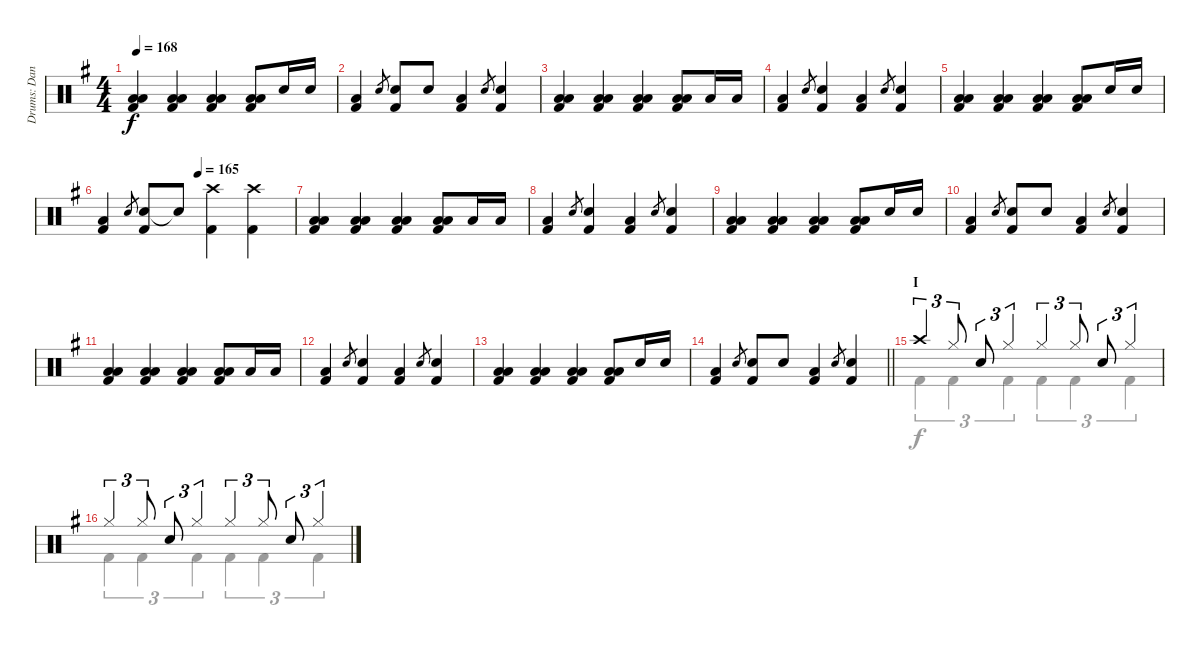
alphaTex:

\track ("Drums: Dana" "Drums: Dan") {instrument percussion}
\staff {score}
\articulation defaults
\voice
\ts (4 4)
\tempo 168
\clef neutral
\ks g
("Low Tom (hit)" "Low Floor Tom (hit)" "Kick (hit) 2").4{dy f} ("Low Tom (hit)" "Low Floor Tom (hit)" "Kick (hit) 2").4 ("Low Tom (hit)" "Low Floor Tom (hit)" "Kick (hit) 2").4 ("Low Tom (hit)" "Low Floor Tom (hit)" "Kick (hit) 2").8 "Electric Snare (hit)".16 "Electric Snare (hit)".16 |
("Low Floor Tom (hit)" "Kick (hit) 2").4 "Electric Snare (hit)".8{gr} ("Electric Snare (hit)" "Kick (hit) 2").8 "Electric Snare (hit)".8 ("Low Floor Tom (hit)" "Kick (hit) 2").4 "Electric Snare (hit)".8{gr} ("Electric Snare (hit)" "Kick (hit) 2").4 |
("Low Tom (hit)" "Low Floor Tom (hit)" "Kick (hit) 2").4 ("Low Tom (hit)" "Low Floor Tom (hit)" "Kick (hit) 2").4 ("Low Tom (hit)" "Low Floor Tom (hit)" "Kick (hit) 2").4 ("Low Tom (hit)" "Low Floor Tom (hit)" "Kick (hit) 2").8 "Low Tom (hit)".16 "Low Floor Tom (hit)".16 |
("Low Floor Tom (hit)" "Kick (hit) 2").4 "Electric Snare (hit)".8{gr} ("Electric Snare (hit)" "Kick (hit) 2").4 ("Low Floor Tom (hit)" "Kick (hit) 2").4 "Electric Snare (hit)".8{gr} ("Electric Snare (hit)" "Kick (hit) 2").4 |
("Low Tom (hit)" "Low Floor Tom (hit)" "Kick (hit) 2").4 ("Low Tom (hit)" "Low Floor Tom (hit)" "Kick (hit) 2").4 ("Low Tom (hit)" "Low Floor Tom (hit)" "Kick (hit) 2").4 ("Low Tom (hit)" "Low Floor Tom (hit)" "Kick (hit) 2").8 "Electric Snare (hit)".16 "Electric Snare (hit)".16 |
\tempo (165 0.5)
("Low Floor Tom (hit)" "Kick (hit) 2").4 "Electric Snare (hit)".8{gr} ("Electric Snare (hit)" "Kick (hit) 2").8 "Electric Snare (hit)"{t}.8 ("Crash high (hit)" "Kick (hit) 2").4 ("Crash high (hit)" "Kick (hit) 2").4 |
("Low Tom (hit)" "Low Floor Tom (hit)" "Kick (hit) 2").4 ("Low Tom (hit)" "Low Floor Tom (hit)" "Kick (hit) 2").4 ("Low Tom (hit)" "Low Floor Tom (hit)" "Kick (hit) 2").4 ("Low Tom (hit)" "Low Floor Tom (hit)" "Kick (hit) 2").8 "Low Tom (hit)".16 "Low Floor Tom (hit)".16 |
("Low Floor Tom (hit)" "Kick (hit) 2").4 "Electric Snare (hit)".8{gr} ("Electric Snare (hit)" "Kick (hit) 2").4 ("Low Floor Tom (hit)" "Kick (hit) 2").4 "Electric Snare (hit)".8{gr} ("Electric Snare (hit)" "Kick (hit) 2").4 |
("Low Tom (hit)" "Low Floor Tom (hit)" "Kick (hit) 2").4 ("Low Tom (hit)" "Low Floor Tom (hit)" "Kick (hit) 2").4 ("Low Tom (hit)" "Low Floor Tom (hit)" "Kick (hit) 2").4 ("Low Tom (hit)" "Low Floor Tom (hit)" "Kick (hit) 2").8 "Electric Snare (hit)".16 "Electric Snare (hit)".16 |
("Low Floor Tom (hit)" "Kick (hit) 2").4 "Electric Snare (hit)".8{gr} ("Electric Snare (hit)" "Kick (hit) 2").8 "Electric Snare (hit)".8 ("Low Floor Tom (hit)" "Kick (hit) 2").4 "Electric Snare (hit)".8{gr} ("Electric Snare (hit)" "Kick (hit) 2").4 |
("Low Tom (hit)" "Low Floor Tom (hit)" "Kick (hit) 2").4 ("Low Tom (hit)" "Low Floor Tom (hit)" "Kick (hit) 2").4 ("Low Tom (hit)" "Low Floor Tom (hit)" "Kick (hit) 2").4 ("Low Tom (hit)" "Low Floor Tom (hit)" "Kick (hit) 2").8 "Low Tom (hit)".16 "Low Floor Tom (hit)".16 |
("Low Floor Tom (hit)" "Kick (hit) 2").4 "Electric Snare (hit)".8{gr} ("Electric Snare (hit)" "Kick (hit) 2").4 ("Low Floor Tom (hit)" "Kick (hit) 2").4 "Electric Snare (hit)".8{gr} ("Electric Snare (hit)" "Kick (hit) 2").4 |
("Low Tom (hit)" "Low Floor Tom (hit)" "Kick (hit) 2").4 ("Low Tom (hit)" "Low Floor Tom (hit)" "Kick (hit) 2").4 ("Low Tom (hit)" "Low Floor Tom (hit)" "Kick (hit) 2").4 ("Low Tom (hit)" "Low Floor Tom (hit)" "Kick (hit) 2").8 "Electric Snare (hit)".16 "Electric Snare (hit)".16 |
\barLineRight lightlight
("Low Floor Tom (hit)" "Kick (hit) 2").4 "Electric Snare (hit)".8{gr} ("Electric Snare (hit)" "Kick (hit) 2").8 "Electric Snare (hit)".8 ("Low Floor Tom (hit)" "Kick (hit) 2").4 "Electric Snare (hit)".8{gr} ("Electric Snare (hit)" "Kick (hit) 2").4 |
\section ("" "I")
"Crash high (hit)".4{tu (3 2)} "Hi-Hat (closed)".8{tu (3 2)} "Snare (hit) 2".8{tu (3 2)} "Hi-Hat (closed)".4{tu (3 2)} "Hi-Hat (closed)".4{tu (3 2)} "Hi-Hat (closed)".8{tu (3 2)} "Snare (hit) 2".8{tu (3 2)} "Hi-Hat (closed)".4{tu (3 2)} |
"Hi-Hat (closed)".4{tu (3 2)} "Hi-Hat (closed)".8{tu (3 2)} "Snare (hit) 2".8{tu (3 2)} "Hi-Hat (closed)".4{tu (3 2)} "Hi-Hat (closed)".4{tu (3 2)} "Hi-Hat (closed)".8{tu (3 2)} "Snare (hit) 2".8{tu (3 2)} "Hi-Hat (closed)".4{tu (3 2)}
\voice
\clef neutral
\ottava regular
\simile none
\ks g
|
|
|
|
|
|
|
|
|
|
|
|
|
\barLineRight lightlight
|
"Kick (hit) 2".4{tu (3 2)} "Kick (hit) 2".4{tu (3 2)} "Kick (hit) 2".4{tu (3 2)} "Kick (hit) 2".4{tu (3 2)} "Kick (hit) 2".4{tu (3 2)} "Kick (hit) 2".4{tu (3 2)} |
"Kick (hit) 2".4{tu (3 2)} "Kick (hit) 2".4{tu (3 2)} "Kick (hit) 2".4{tu (3 2)} "Kick (hit) 2".4{tu (3 2)} "Kick (hit) 2".4{tu (3 2)} "Kick (hit) 2".4{tu (3 2)}
